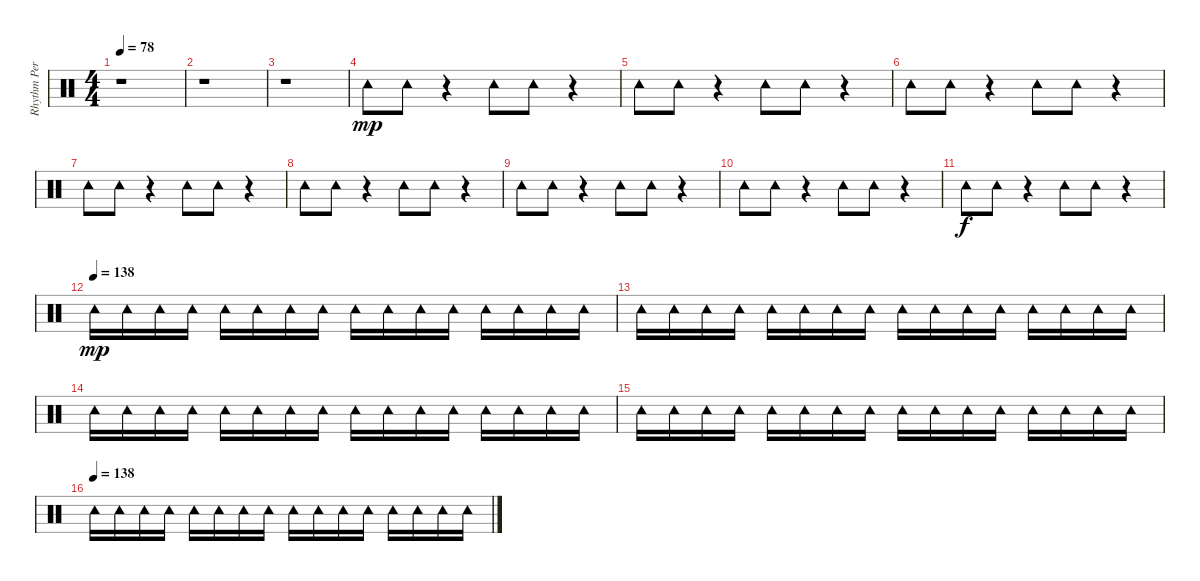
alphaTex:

\track ("Rhythm Percussion" "Rhythm Per") {instrument percussion}
\staff {score}
\articulation defaults
\ts (4 4)
\tempo 78
\clef neutral
\ks c
r.1{dy mp} |
r.1 |
r.1 |
"Tambourine (hit)".8 "Tambourine (hit)".8 r.4 "Tambourine (hit)".8 "Tambourine (hit)".8 r.4 |
"Tambourine (hit)".8 "Tambourine (hit)".8 r.4 "Tambourine (hit)".8 "Tambourine (hit)".8 r.4 |
"Tambourine (hit)".8 "Tambourine (hit)".8 r.4 "Tambourine (hit)".8 "Tambourine (hit)".8 r.4 |
"Tambourine (hit)".8 "Tambourine (hit)".8 r.4 "Tambourine (hit)".8 "Tambourine (hit)".8 r.4 |
"Tambourine (hit)".8 "Tambourine (hit)".8 r.4 "Tambourine (hit)".8 "Tambourine (hit)".8 r.4 |
"Tambourine (hit)".8 "Tambourine (hit)".8 r.4 "Tambourine (hit)".8 "Tambourine (hit)".8 r.4 |
"Tambourine (hit)".8 "Tambourine (hit)".8 r.4 "Tambourine (hit)".8 "Tambourine (hit)".8 r.4 |
"Tambourine (hit)".8{dy f} "Tambourine (hit)".8 r.4 "Tambourine (hit)".8 "Tambourine (hit)".8 r.4 |
\tempo (138)
"Tambourine (hit)".16{dy mp} "Tambourine (hit)".16 "Tambourine (hit)".16 "Tambourine (hit)".16 "Tambourine (hit)".16 "Tambourine (hit)".16 "Tambourine (hit)".16 "Tambourine (hit)".16 "Tambourine (hit)".16 "Tambourine (hit)".16 "Tambourine (hit)".16 "Tambourine (hit)".16 "Tambourine (hit)".16 "Tambourine (hit)".16 "Tambourine (hit)".16 "Tambourine (hit)".16 |
"Tambourine (hit)".16 "Tambourine (hit)".16 "Tambourine (hit)".16 "Tambourine (hit)".16 "Tambourine (hit)".16 "Tambourine (hit)".16 "Tambourine (hit)".16 "Tambourine (hit)".16 "Tambourine (hit)".16 "Tambourine (hit)".16 "Tambourine (hit)".16 "Tambourine (hit)".16 "Tambourine (hit)".16 "Tambourine (hit)".16 "Tambourine (hit)".16 "Tambourine (hit)".16 |
"Tambourine (hit)".16 "Tambourine (hit)".16 "Tambourine (hit)".16 "Tambourine (hit)".16 "Tambourine (hit)".16 "Tambourine (hit)".16 "Tambourine (hit)".16 "Tambourine (hit)".16 "Tambourine (hit)".16 "Tambourine (hit)".16 "Tambourine (hit)".16 "Tambourine (hit)".16 "Tambourine (hit)".16 "Tambourine (hit)".16 "Tambourine (hit)".16 "Tambourine (hit)".16 |
"Tambourine (hit)".16 "Tambourine (hit)".16 "Tambourine (hit)".16 "Tambourine (hit)".16 "Tambourine (hit)".16 "Tambourine (hit)".16 "Tambourine (hit)".16 "Tambourine (hit)".16 "Tambourine (hit)".16 "Tambourine (hit)".16 "Tambourine (hit)".16 "Tambourine (hit)".16 "Tambourine (hit)".16 "Tambourine (hit)".16 "Tambourine (hit)".16 "Tambourine (hit)".16 |
\tempo (138)
"Tambourine (hit)".16 "Tambourine (hit)".16 "Tambourine (hit)".16 "Tambourine (hit)".16 "Tambourine (hit)".16 "Tambourine (hit)".16 "Tambourine (hit)".16 "Tambourine (hit)".16 "Tambourine (hit)".16 "Tambourine (hit)".16 "Tambourine (hit)".16 "Tambourine (hit)".16 "Tambourine (hit)".16 "Tambourine (hit)".16 "Tambourine (hit)".16 "Tambourine (hit)".16
